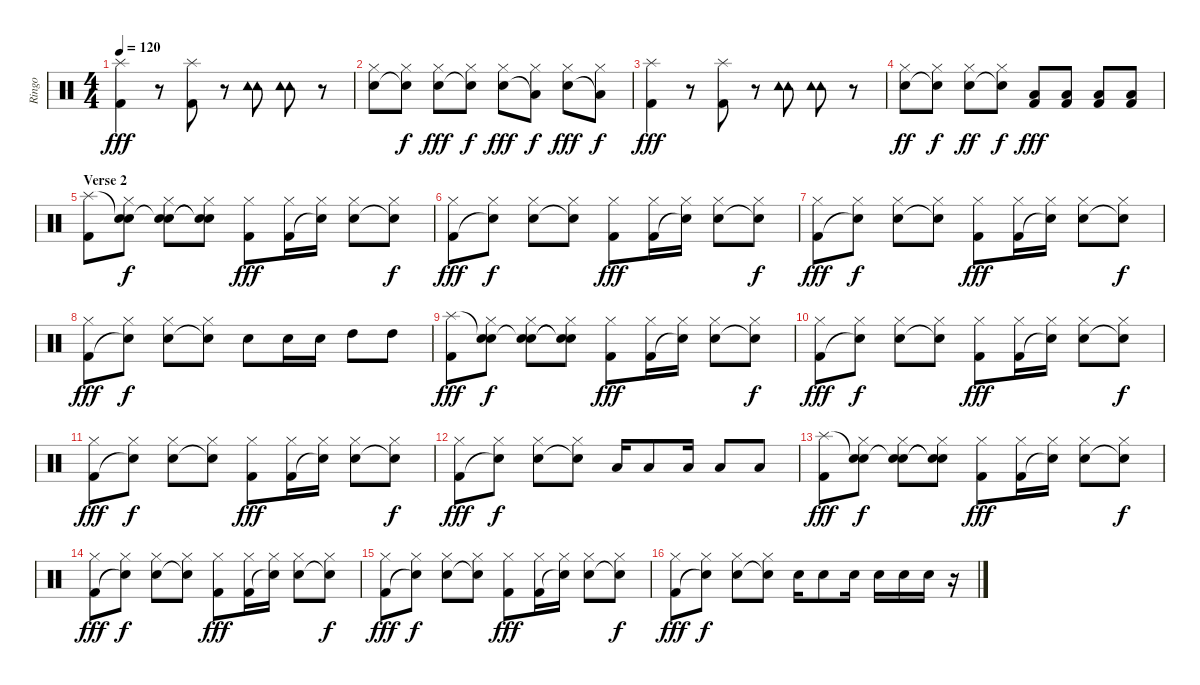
\track ("Ringo" "Ringo") {instrument percussion}
\staff {score}
\articulation defaults
\ts (4 4)
\tempo 120
\clef neutral
\ks c
("Splash (hit)" "Kick (hit) 2").4{dy fff} r.8 ("Splash (hit)" "Kick (hit) 2").8 r.8 ("Tambourine (hit)" "Tambourine (hit)").8 ("Tambourine (hit)" "Tambourine (hit)").8 r.8 |
("Hi-Hat (closed)" "Snare (hit) 2").8 ("Hi-Hat (closed)" "Snare (hit)"{t}).8{dy f} ("Hi-Hat (closed)" "Snare (hit) 2").8{dy fff} ("Hi-Hat (closed)" "Snare (hit)"{t}).8{dy f} ("Hi-Hat (closed)" "Snare (hit) 2").8{dy fff} ("Hi-Hat (closed)" "Low Floor Tom (hit)"{t}).8{dy f} ("Hi-Hat (closed)" "Snare (hit) 2").8{dy fff} ("Hi-Hat (closed)" "Low Floor Tom (hit)"{t}).8{dy f} |
("Splash (hit)" "Kick (hit) 2").4{dy fff} r.8 ("Splash (hit)" "Kick (hit) 2").8 r.8 ("Tambourine (hit)" "Tambourine (hit)").8 ("Tambourine (hit)" "Tambourine (hit)").8 r.8 |
("Hi-Hat (closed)" "Snare (hit) 2").8{dy ff} ("Hi-Hat (closed)" "Snare (hit)"{t}).8{dy f} ("Hi-Hat (closed)" "Snare (hit) 2").8{dy ff} ("Hi-Hat (closed)" "Snare (hit)"{t}).8{dy f} ("Low Floor Tom (hit)" "Kick (hit) 2").8{dy fff} ("Low Floor Tom (hit)" "Kick (hit) 2").8 ("Low Floor Tom (hit)" "Kick (hit) 2").8 ("Low Floor Tom (hit)" "Kick (hit) 2").8 |
\section ("" "Verse 2")
("Splash (hit)" "Kick (hit) 2").8 ("Snare (hit)"{t} "Hi-Hat (closed)" "Snare (hit)").8{dy f} ("Snare (hit)"{t} "Hi-Hat (closed)" "Snare (hit) 2").8 ("Snare (hit)"{t} "Hi-Hat (closed)" "Snare (hit)"{t}).8 ("Hi-Hat (closed)" "Kick (hit) 2").8{dy fff} ("Hi-Hat (closed)" "Kick (hit) 2").16 ("Hi-Hat (closed)" "Snare (hit)"{t}).16 ("Hi-Hat (closed)" "Snare (hit) 2").8 ("Hi-Hat (closed)" "Snare (hit)"{t}).8{dy f} |
("Hi-Hat (closed)" "Kick (hit) 2").8{dy fff} ("Hi-Hat (closed)" "Snare (hit)"{t}).8{dy f} ("Hi-Hat (closed)" "Snare (hit) 2").8 ("Hi-Hat (closed)" "Snare (hit)"{t}).8 ("Hi-Hat (closed)" "Kick (hit) 2").8{dy fff} ("Hi-Hat (closed)" "Kick (hit) 2").16 ("Hi-Hat (closed)" "Snare (hit)"{t}).16 ("Hi-Hat (closed)" "Snare (hit) 2").8 ("Hi-Hat (closed)" "Snare (hit)"{t}).8{dy f} |
("Hi-Hat (closed)" "Kick (hit) 2").8{dy fff} ("Hi-Hat (closed)" "Snare (hit)"{t}).8{dy f} ("Hi-Hat (closed)" "Snare (hit) 2").8 ("Hi-Hat (closed)" "Snare (hit)"{t}).8 ("Hi-Hat (closed)" "Kick (hit) 2").8{dy fff} ("Hi-Hat (closed)" "Kick (hit) 2").16 ("Hi-Hat (closed)" "Snare (hit)"{t}).16 ("Hi-Hat (closed)" "Snare (hit) 2").8 ("Hi-Hat (closed)" "Snare (hit)"{t}).8{dy f} |
("Hi-Hat (closed)" "Kick (hit) 2").8{dy fff} ("Hi-Hat (closed)" "Snare (hit)"{t}).8{dy f} ("Hi-Hat (closed)" "Snare (hit) 2").8 ("Hi-Hat (closed)" "Snare (hit)"{t}).8 "Snare (hit) 2".8 "Snare (hit) 2".16 "Snare (hit) 2".16 "High Tom (hit)".8 "High Tom (hit)".8 |
("Splash (hit)" "Kick (hit) 2").8{dy fff} ("Snare (hit)"{t} "Hi-Hat (closed)" "Snare (hit)").8{dy f} ("Snare (hit)"{t} "Hi-Hat (closed)" "Snare (hit) 2").8 ("Snare (hit)"{t} "Hi-Hat (closed)" "Snare (hit)"{t}).8 ("Hi-Hat (closed)" "Kick (hit) 2").8{dy fff} ("Hi-Hat (closed)" "Kick (hit) 2").16 ("Hi-Hat (closed)" "Snare (hit)"{t}).16 ("Hi-Hat (closed)" "Snare (hit) 2").8 ("Hi-Hat (closed)" "Snare (hit)"{t}).8{dy f} |
("Hi-Hat (closed)" "Kick (hit) 2").8{dy fff} ("Hi-Hat (closed)" "Snare (hit)"{t}).8{dy f} ("Hi-Hat (closed)" "Snare (hit) 2").8 ("Hi-Hat (closed)" "Snare (hit)"{t}).8 ("Hi-Hat (closed)" "Kick (hit) 2").8{dy fff} ("Hi-Hat (closed)" "Kick (hit) 2").16 ("Hi-Hat (closed)" "Snare (hit)"{t}).16 ("Hi-Hat (closed)" "Snare (hit) 2").8 ("Hi-Hat (closed)" "Snare (hit)"{t}).8{dy f} |
("Hi-Hat (closed)" "Kick (hit) 2").8{dy fff} ("Hi-Hat (closed)" "Snare (hit)"{t}).8{dy f} ("Hi-Hat (closed)" "Snare (hit) 2").8 ("Hi-Hat (closed)" "Snare (hit)"{t}).8 ("Hi-Hat (closed)" "Kick (hit) 2").8{dy fff} ("Hi-Hat (closed)" "Kick (hit) 2").16 ("Hi-Hat (closed)" "Snare (hit)"{t}).16 ("Hi-Hat (closed)" "Snare (hit) 2").8 ("Hi-Hat (closed)" "Snare (hit)"{t}).8{dy f} |
("Hi-Hat (closed)" "Kick (hit) 2").8{dy fff} ("Hi-Hat (closed)" "Snare (hit)"{t}).8{dy f} ("Hi-Hat (closed)" "Snare (hit) 2").8 ("Hi-Hat (closed)" "Snare (hit)"{t}).8 "Low Floor Tom (hit)".16 "Low Floor Tom (hit)".8 "Low Floor Tom (hit)".16 "Low Floor Tom (hit)".8 "Low Floor Tom (hit)".8 |
("Splash (hit)" "Kick (hit) 2").8{dy fff} ("Snare (hit)"{t} "Hi-Hat (closed)" "Snare (hit)").8{dy f} ("Snare (hit)"{t} "Hi-Hat (closed)" "Snare (hit) 2").8 ("Snare (hit)"{t} "Hi-Hat (closed)" "Snare (hit)"{t}).8 ("Hi-Hat (closed)" "Kick (hit) 2").8{dy fff} ("Hi-Hat (closed)" "Kick (hit) 2").16 ("Hi-Hat (closed)" "Snare (hit)"{t}).16 ("Hi-Hat (closed)" "Snare (hit) 2").8 ("Hi-Hat (closed)" "Snare (hit)"{t}).8{dy f} |
("Hi-Hat (closed)" "Kick (hit) 2").8{dy fff} ("Hi-Hat (closed)" "Snare (hit)"{t}).8{dy f} ("Hi-Hat (closed)" "Snare (hit) 2").8 ("Hi-Hat (closed)" "Snare (hit)"{t}).8 ("Hi-Hat (closed)" "Kick (hit) 2").8{dy fff} ("Hi-Hat (closed)" "Kick (hit) 2").16 ("Hi-Hat (closed)" "Snare (hit)"{t}).16 ("Hi-Hat (closed)" "Snare (hit) 2").8 ("Hi-Hat (closed)" "Snare (hit)"{t}).8{dy f} |
("Hi-Hat (closed)" "Kick (hit) 2").8{dy fff} ("Hi-Hat (closed)" "Snare (hit)"{t}).8{dy f} ("Hi-Hat (closed)" "Snare (hit) 2").8 ("Hi-Hat (closed)" "Snare (hit)"{t}).8 ("Hi-Hat (closed)" "Kick (hit) 2").8{dy fff} ("Hi-Hat (closed)" "Kick (hit) 2").16 ("Hi-Hat (closed)" "Snare (hit)"{t}).16 ("Hi-Hat (closed)" "Snare (hit) 2").8 ("Hi-Hat (closed)" "Snare (hit)"{t}).8{dy f} |
("Hi-Hat (closed)" "Kick (hit) 2").8{dy fff} ("Hi-Hat (closed)" "Snare (hit)"{t}).8{dy f} ("Hi-Hat (closed)" "Snare (hit) 2").8 ("Hi-Hat (closed)" "Snare (hit)"{t}).8 "Snare (hit) 2".16 "Snare (hit) 2".8 "Snare (hit) 2".16 "Snare (hit) 2".16 "Snare (hit) 2".16 "Snare (hit) 2".16 r.16
